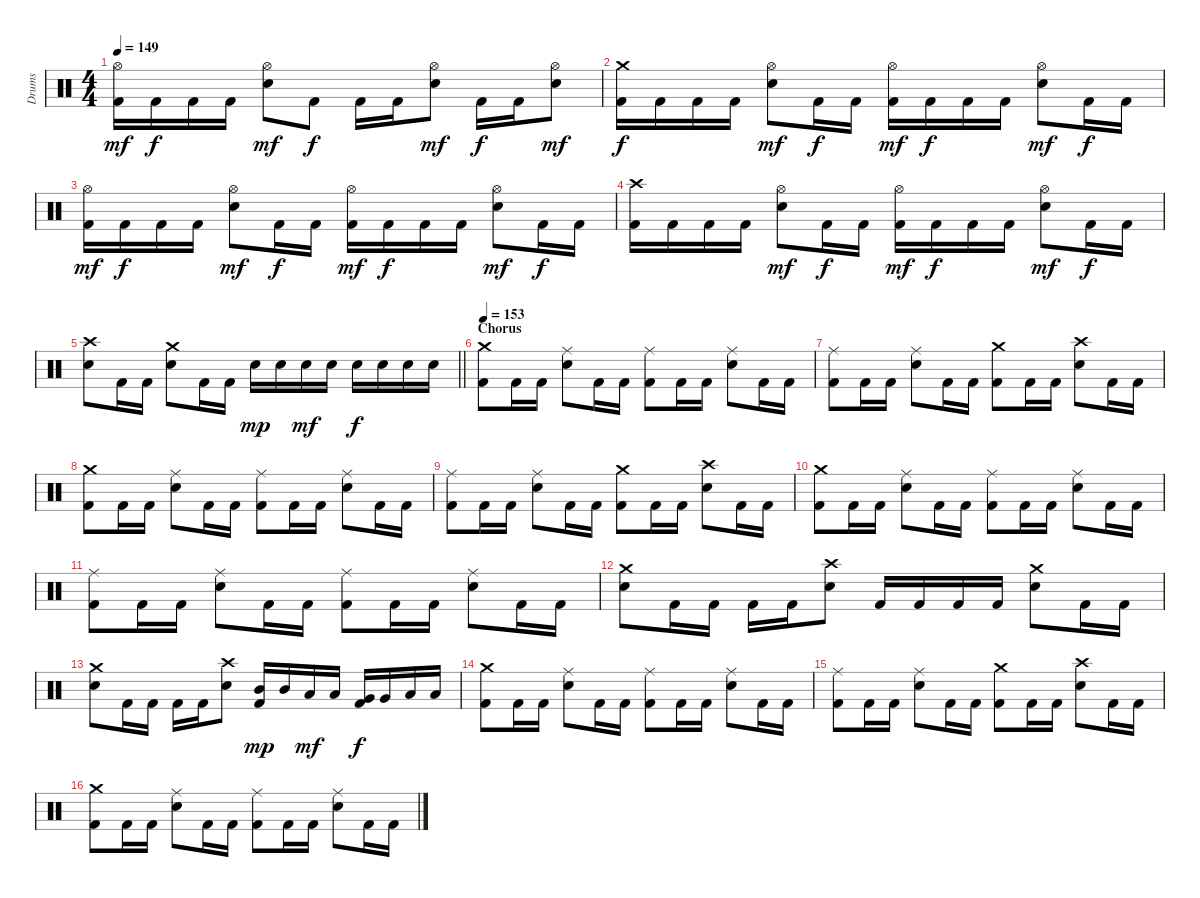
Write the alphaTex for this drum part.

\track ("Drums" "Drums") {instrument percussion}
\staff
\articulation defaults
\ts (4 4)
\tempo 149
\clef neutral
\ks c
("Kick (hit) 2" "Hi-Hat (open)").16{dy mf} "Kick (hit) 2".16{dy f} "Kick (hit) 2".16 "Kick (hit) 2".16 ("Electric Snare (hit)" "Hi-Hat (open)").8{dy mf} "Kick (hit) 2".8{dy f} "Kick (hit) 2".16 "Kick (hit) 2".16 ("Electric Snare (hit)" "Hi-Hat (open)").8{dy mf} "Kick (hit) 2".16{dy f} "Kick (hit) 2".16 ("Electric Snare (hit)" "Hi-Hat (open)").8{dy mf} |
("Kick (hit) 2" "Crash medium (hit)").16{dy f} "Kick (hit) 2".16 "Kick (hit) 2".16 "Kick (hit) 2".16 ("Electric Snare (hit)" "Hi-Hat (open)").8{dy mf} "Kick (hit) 2".16{dy f} "Kick (hit) 2".16 ("Kick (hit) 2" "Hi-Hat (open)").16{dy mf} "Kick (hit) 2".16{dy f} "Kick (hit) 2".16 "Kick (hit) 2".16 ("Electric Snare (hit)" "Hi-Hat (open)").8{dy mf} "Kick (hit) 2".16{dy f} "Kick (hit) 2".16 |
("Kick (hit) 2" "Hi-Hat (open)").16{dy mf} "Kick (hit) 2".16{dy f} "Kick (hit) 2".16 "Kick (hit) 2".16 ("Electric Snare (hit)" "Hi-Hat (open)").8{dy mf} "Kick (hit) 2".16{dy f} "Kick (hit) 2".16 ("Kick (hit) 2" "Hi-Hat (open)").16{dy mf} "Kick (hit) 2".16{dy f} "Kick (hit) 2".16 "Kick (hit) 2".16 ("Electric Snare (hit)" "Hi-Hat (open)").8{dy mf} "Kick (hit) 2".16{dy f} "Kick (hit) 2".16 |
("Kick (hit) 2" "Crash high (hit)").16 "Kick (hit) 2".16 "Kick (hit) 2".16 "Kick (hit) 2".16 ("Electric Snare (hit)" "Hi-Hat (open)").8{dy mf} "Kick (hit) 2".16{dy f} "Kick (hit) 2".16 ("Kick (hit) 2" "Hi-Hat (open)").16{dy mf} "Kick (hit) 2".16{dy f} "Kick (hit) 2".16 "Kick (hit) 2".16 ("Electric Snare (hit)" "Hi-Hat (open)").8{dy mf} "Kick (hit) 2".16{dy f} "Kick (hit) 2".16 |
\barLineRight lightlight
("Electric Snare (hit)" "Crash high (hit)").8 "Kick (hit) 2".16 "Kick (hit) 2".16 ("Electric Snare (hit)" "Crash medium (hit)").8 "Kick (hit) 2".16 "Kick (hit) 2".16 "Electric Snare (hit)".16{dy mp} "Electric Snare (hit)".16 "Electric Snare (hit)".16{dy mf} "Electric Snare (hit)".16 "Electric Snare (hit)".16{dy f} "Electric Snare (hit)".16 "Electric Snare (hit)".16 "Electric Snare (hit)".16 |
\section ("" "Chorus")
\tempo 153
("Kick (hit) 2" "Crash medium (hit)").8 "Kick (hit) 2".16 "Kick (hit) 2".16 ("Electric Snare (hit)" "Ride (middle)").8 "Kick (hit) 2".16 "Kick (hit) 2".16 ("Kick (hit) 2" "Ride (middle)").8 "Kick (hit) 2".16 "Kick (hit) 2".16 ("Electric Snare (hit)" "Ride (middle)").8 "Kick (hit) 2".16 "Kick (hit) 2".16 |
("Kick (hit) 2" "Ride (middle)").8 "Kick (hit) 2".16 "Kick (hit) 2".16 ("Electric Snare (hit)" "Ride (middle)").8 "Kick (hit) 2".16 "Kick (hit) 2".16 ("Kick (hit) 2" "Crash medium (hit)").8 "Kick (hit) 2".16 "Kick (hit) 2".16 ("Electric Snare (hit)" "Crash high (hit)").8 "Kick (hit) 2".16 "Kick (hit) 2".16 |
("Kick (hit) 2" "Crash medium (hit)").8 "Kick (hit) 2".16 "Kick (hit) 2".16 ("Electric Snare (hit)" "Ride (middle)").8 "Kick (hit) 2".16 "Kick (hit) 2".16 ("Kick (hit) 2" "Ride (middle)").8 "Kick (hit) 2".16 "Kick (hit) 2".16 ("Electric Snare (hit)" "Ride (middle)").8 "Kick (hit) 2".16 "Kick (hit) 2".16 |
("Kick (hit) 2" "Ride (middle)").8 "Kick (hit) 2".16 "Kick (hit) 2".16 ("Electric Snare (hit)" "Ride (middle)").8 "Kick (hit) 2".16 "Kick (hit) 2".16 ("Kick (hit) 2" "Crash medium (hit)").8 "Kick (hit) 2".16 "Kick (hit) 2".16 ("Electric Snare (hit)" "Crash high (hit)").8 "Kick (hit) 2".16 "Kick (hit) 2".16 |
("Kick (hit) 2" "Crash medium (hit)").8 "Kick (hit) 2".16 "Kick (hit) 2".16 ("Electric Snare (hit)" "Ride (middle)").8 "Kick (hit) 2".16 "Kick (hit) 2".16 ("Kick (hit) 2" "Ride (middle)").8 "Kick (hit) 2".16 "Kick (hit) 2".16 ("Electric Snare (hit)" "Ride (middle)").8 "Kick (hit) 2".16 "Kick (hit) 2".16 |
("Kick (hit) 2" "Ride (middle)").8 "Kick (hit) 2".16 "Kick (hit) 2".16 ("Electric Snare (hit)" "Ride (middle)").8 "Kick (hit) 2".16 "Kick (hit) 2".16 ("Kick (hit) 2" "Ride (middle)").8 "Kick (hit) 2".16 "Kick (hit) 2".16 ("Electric Snare (hit)" "Ride (middle)").8 "Kick (hit) 2".16 "Kick (hit) 2".16 |
("Electric Snare (hit)" "Crash medium (hit)").8 "Kick (hit) 2".16 "Kick (hit) 2".16 "Kick (hit) 2".16 "Kick (hit) 2".16 ("Electric Snare (hit)" "Crash high (hit)").8 "Kick (hit) 2".16 "Kick (hit) 2".16 "Kick (hit) 2".16 "Kick (hit) 2".16 ("Electric Snare (hit)" "Crash medium (hit)").8 "Kick (hit) 2".16 "Kick (hit) 2".16 |
("Electric Snare (hit)" "Crash medium (hit)").8 "Kick (hit) 2".16 "Kick (hit) 2".16 "Kick (hit) 2".16 "Kick (hit) 2".16 ("Electric Snare (hit)" "Crash high (hit)").8 ("Kick (hit) 2" "Mid Tom (hit)").16{dy mp} "Mid Tom (hit)".16 "Low Tom (hit)".16{dy mf} "Low Tom (hit)".16 ("Kick (hit) 2" "Very Low Tom (hit)").16{dy f} "Very Low Tom (hit)".16 "Low Floor Tom (hit)".16 "Low Floor Tom (hit)".16 |
("Kick (hit) 2" "Crash medium (hit)").8 "Kick (hit) 2".16 "Kick (hit) 2".16 ("Electric Snare (hit)" "Ride (middle)").8 "Kick (hit) 2".16 "Kick (hit) 2".16 ("Kick (hit) 2" "Ride (middle)").8 "Kick (hit) 2".16 "Kick (hit) 2".16 ("Electric Snare (hit)" "Ride (middle)").8 "Kick (hit) 2".16 "Kick (hit) 2".16 |
("Kick (hit) 2" "Ride (middle)").8 "Kick (hit) 2".16 "Kick (hit) 2".16 ("Electric Snare (hit)" "Ride (middle)").8 "Kick (hit) 2".16 "Kick (hit) 2".16 ("Kick (hit) 2" "Crash medium (hit)").8 "Kick (hit) 2".16 "Kick (hit) 2".16 ("Electric Snare (hit)" "Crash high (hit)").8 "Kick (hit) 2".16 "Kick (hit) 2".16 |
("Kick (hit) 2" "Crash medium (hit)").8 "Kick (hit) 2".16 "Kick (hit) 2".16 ("Electric Snare (hit)" "Ride (middle)").8 "Kick (hit) 2".16 "Kick (hit) 2".16 ("Kick (hit) 2" "Ride (middle)").8 "Kick (hit) 2".16 "Kick (hit) 2".16 ("Electric Snare (hit)" "Ride (middle)").8 "Kick (hit) 2".16 "Kick (hit) 2".16
